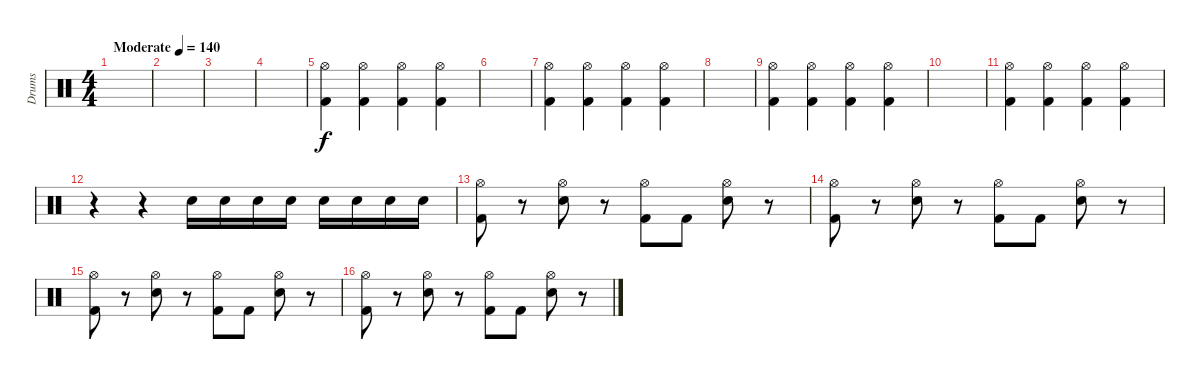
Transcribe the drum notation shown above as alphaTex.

\track ("Drums" "Drums") {instrument percussion}
\staff {score}
\articulation defaults
\ts (4 4)
\tempo (140 "Moderate")
\clef neutral
\ks c
|
|
|
|
("Hi-Hat (open)" "Kick (hit) 2").4 ("Hi-Hat (open)" "Kick (hit) 2").4 ("Hi-Hat (open)" "Kick (hit) 2").4 ("Hi-Hat (open)" "Kick (hit) 2").4 |
|
("Hi-Hat (open)" "Kick (hit) 2").4 ("Hi-Hat (open)" "Kick (hit) 2").4 ("Hi-Hat (open)" "Kick (hit) 2").4 ("Hi-Hat (open)" "Kick (hit) 2").4 |
|
("Hi-Hat (open)" "Kick (hit) 2").4 ("Hi-Hat (open)" "Kick (hit) 2").4 ("Hi-Hat (open)" "Kick (hit) 2").4 ("Hi-Hat (open)" "Kick (hit) 2").4 |
|
("Hi-Hat (open)" "Kick (hit) 2").4 ("Hi-Hat (open)" "Kick (hit) 2").4 ("Hi-Hat (open)" "Kick (hit) 2").4 ("Hi-Hat (open)" "Kick (hit) 2").4 |
r.4 r.4 "Snare (hit) 2".16 "Snare (hit) 2".16 "Snare (hit) 2".16 "Snare (hit) 2".16 "Snare (hit) 2".16 "Snare (hit) 2".16 "Snare (hit) 2".16 "Snare (hit) 2".16 |
("Hi-Hat (open)" "Kick (hit) 2").8 r.8 ("Hi-Hat (open)" "Snare (hit) 2").8 r.8 ("Hi-Hat (open)" "Kick (hit) 2").8 "Kick (hit) 2".8 ("Hi-Hat (open)" "Snare (hit) 2").8 r.8 |
("Hi-Hat (open)" "Kick (hit) 2").8 r.8 ("Hi-Hat (open)" "Snare (hit) 2").8 r.8 ("Hi-Hat (open)" "Kick (hit) 2").8 "Kick (hit) 2".8 ("Hi-Hat (open)" "Snare (hit) 2").8 r.8 |
("Hi-Hat (open)" "Kick (hit) 2").8 r.8 ("Hi-Hat (open)" "Snare (hit) 2").8 r.8 ("Hi-Hat (open)" "Kick (hit) 2").8 "Kick (hit) 2".8 ("Hi-Hat (open)" "Snare (hit) 2").8 r.8 |
("Hi-Hat (open)" "Kick (hit) 2").8 r.8 ("Hi-Hat (open)" "Snare (hit) 2").8 r.8 ("Hi-Hat (open)" "Kick (hit) 2").8 "Kick (hit) 2".8 ("Hi-Hat (open)" "Snare (hit) 2").8 r.8
